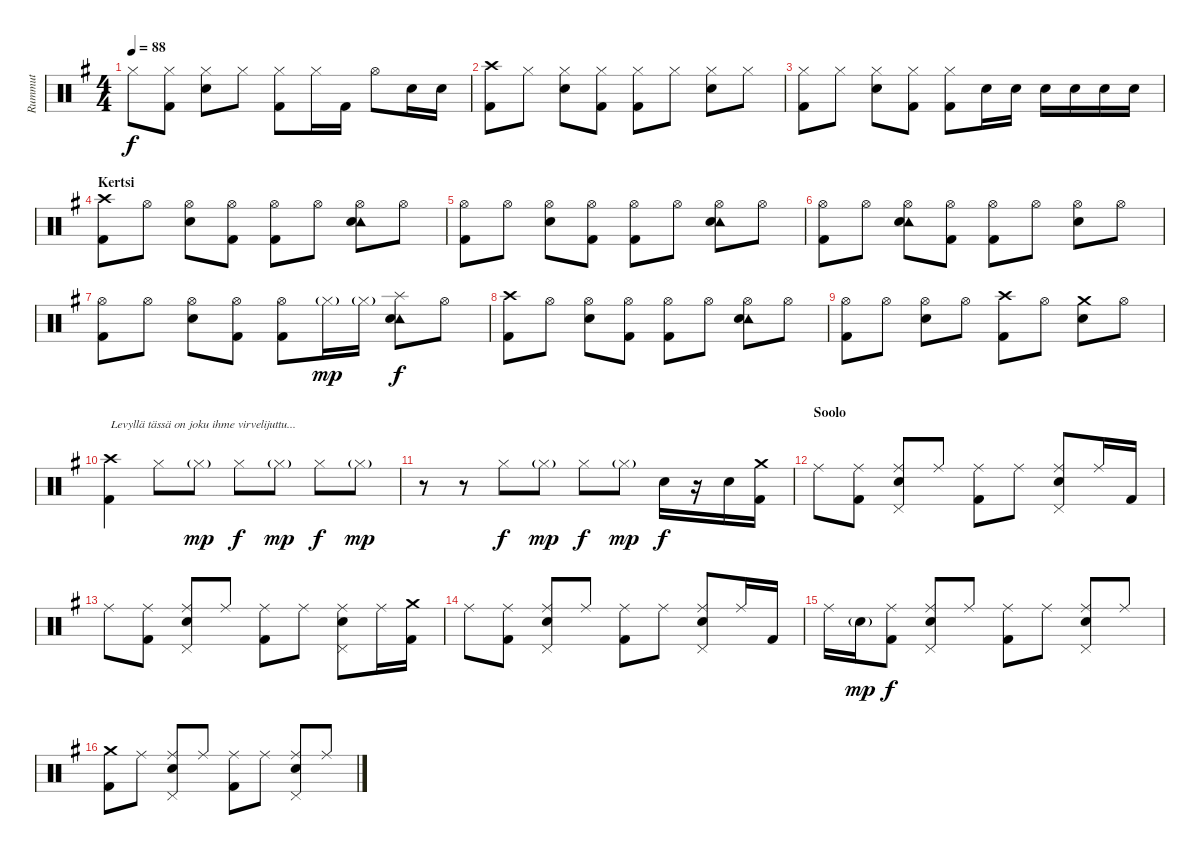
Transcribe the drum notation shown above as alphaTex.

\track ("Rummut" "Rummut") {instrument percussion}
\staff {score}
\articulation defaults
\ts (4 4)
\tempo 88
\clef neutral
\ks eminor "Hi-Hat (closed)".8{dy f}
("Hi-Hat (closed)" "Kick (hit) 2").8 ("Hi-Hat (closed)" "Snare (hit) 2").8 "Hi-Hat (closed)".8 ("Hi-Hat (closed)" "Kick (hit) 2").8 "Hi-Hat (closed)".16 "Kick (hit) 2".16 "Hi-Hat (open)".8 "Snare (hit) 2".16 "Snare (hit) 2".16 |
("Crash high (hit)" "Kick (hit) 2").8 "Hi-Hat (closed)".8 ("Hi-Hat (closed)" "Snare (hit) 2").8 ("Hi-Hat (closed)" "Kick (hit) 2").8 ("Hi-Hat (closed)" "Kick (hit) 2").8 "Hi-Hat (closed)".8 ("Hi-Hat (closed)" "Snare (hit) 2").8 "Hi-Hat (closed)".8 |
("Hi-Hat (closed)" "Kick (hit) 2").8 "Hi-Hat (closed)".8 ("Hi-Hat (closed)" "Snare (hit) 2").8 ("Hi-Hat (closed)" "Kick (hit) 2").8 ("Hi-Hat (closed)" "Kick (hit) 2").8 "Snare (hit) 2".16 "Snare (hit) 2".16 "Snare (hit) 2".16 "Snare (hit) 2".16 "Snare (hit) 2".16 "Snare (hit) 2".16 |
\section ("" "Kertsi")
("Crash high (hit)" "Kick (hit) 2").8 "Hi-Hat (open)".8 ("Hi-Hat (open)" "Snare (hit) 2").8 ("Hi-Hat (open)" "Kick (hit) 2").8 ("Hi-Hat (open)" "Kick (hit) 2").8 "Hi-Hat (open)".8 ("Hi-Hat (open)" "Tambourine (hit)" "Snare (hit) 2").8 "Hi-Hat (open)".8 |
("Hi-Hat (open)" "Kick (hit) 2").8 "Hi-Hat (open)".8 ("Hi-Hat (open)" "Snare (hit) 2").8 ("Hi-Hat (open)" "Kick (hit) 2").8 ("Hi-Hat (open)" "Kick (hit) 2").8 "Hi-Hat (open)".8 ("Hi-Hat (open)" "Tambourine (hit)" "Snare (hit) 2").8 "Hi-Hat (open)".8 |
("Hi-Hat (open)" "Kick (hit) 2").8 "Hi-Hat (open)".8 ("Hi-Hat (open)" "Tambourine (hit)" "Snare (hit) 2").8 ("Hi-Hat (open)" "Kick (hit) 2").8 ("Hi-Hat (open)" "Kick (hit) 2").8 "Hi-Hat (open)".8 ("Hi-Hat (open)" "Snare (hit) 2").8 "Hi-Hat (open)".8 |
("Hi-Hat (open)" "Kick (hit) 2").8 "Hi-Hat (open)".8 ("Hi-Hat (open)" "Snare (hit) 2").8 ("Hi-Hat (open)" "Kick (hit) 2").8 ("Hi-Hat (open)" "Kick (hit) 2").8 "Hi-Hat (closed)"{g}.16{dy mp} "Hi-Hat (closed)"{g}.16 ("Splash (hit)" "Tambourine (hit)" "Snare (hit) 2").8{dy f} "Hi-Hat (open)".8 |
("Crash high (hit)" "Kick (hit) 2").8 "Hi-Hat (open)".8 ("Hi-Hat (open)" "Snare (hit) 2").8 ("Hi-Hat (open)" "Kick (hit) 2").8 ("Hi-Hat (open)" "Kick (hit) 2").8 "Hi-Hat (open)".8 ("Hi-Hat (open)" "Tambourine (hit)" "Snare (hit) 2").8 "Hi-Hat (open)".8 |
("Hi-Hat (open)" "Kick (hit) 2").8 "Hi-Hat (open)".8 ("Hi-Hat (open)" "Snare (hit) 2").8 "Hi-Hat (open)".8 ("Crash high (hit)" "Kick (hit) 2").8 "Hi-Hat (open)".8 ("Crash medium (hit)" "Snare (hit) 2").8 "Hi-Hat (open)".8 |
("Crash high (hit)" "Kick (hit) 2").4{txt "Levyllä tässä on joku ihme virvelijuttu..."} "Hi-Hat (closed)".8 "Hi-Hat (closed)"{g}.8{dy mp} "Hi-Hat (closed)".8{dy f} "Hi-Hat (closed)"{g}.8{dy mp} "Hi-Hat (closed)".8{dy f} "Hi-Hat (closed)"{g}.8{dy mp} |
r.8 r.8 "Hi-Hat (closed)".8{dy f} "Hi-Hat (closed)"{g}.8{dy mp} "Hi-Hat (closed)".8{dy f} "Hi-Hat (closed)"{g}.8{dy mp} "Snare (hit) 2".16{dy f} r.16 "Snare (hit) 2".16 ("Crash medium (hit)" "Kick (hit) 2").16 |
\section ("" "Soolo")
"Ride (middle)".8 ("Ride (middle)" "Kick (hit) 2").8 ("Ride (middle)" "Pedal Hi-Hat (hit)" "Snare (hit) 2").8 "Ride (middle)".8 ("Ride (middle)" "Kick (hit) 2").8 "Ride (middle)".8 ("Ride (middle)" "Pedal Hi-Hat (hit)" "Snare (hit) 2").8 "Ride (middle)".16 "Kick (hit) 2".16 |
"Ride (middle)".8 ("Ride (middle)" "Kick (hit) 2").8 ("Ride (middle)" "Pedal Hi-Hat (hit)" "Snare (hit) 2").8 "Ride (middle)".8 ("Ride (middle)" "Kick (hit) 2").8 "Ride (middle)".8 ("Ride (middle)" "Pedal Hi-Hat (hit)" "Snare (hit) 2").8 "Ride (middle)".16 ("Crash medium (hit)" "Kick (hit) 2").16 |
"Ride (middle)".8 ("Ride (middle)" "Kick (hit) 2").8 ("Ride (middle)" "Pedal Hi-Hat (hit)" "Snare (hit) 2").8 "Ride (middle)".8 ("Ride (middle)" "Kick (hit) 2").8 "Ride (middle)".8 ("Ride (middle)" "Pedal Hi-Hat (hit)" "Snare (hit) 2").8 "Ride (middle)".16 "Kick (hit) 2".16 |
"Ride (middle)".16 "Snare (hit) 2"{g}.16{dy mp} ("Ride (middle)" "Kick (hit) 2").8{dy f} ("Ride (middle)" "Pedal Hi-Hat (hit)" "Snare (hit) 2").8 "Ride (middle)".8 ("Ride (middle)" "Kick (hit) 2").8 "Ride (middle)".8 ("Ride (middle)" "Pedal Hi-Hat (hit)" "Snare (hit) 2").8 "Ride (middle)".8 |
("Crash medium (hit)" "Kick (hit) 2").8 "Ride (middle)".8 ("Ride (middle)" "Pedal Hi-Hat (hit)" "Snare (hit) 2").8 "Ride (middle)".8 ("Ride (middle)" "Kick (hit) 2").8 "Ride (middle)".8 ("Ride (middle)" "Pedal Hi-Hat (hit)" "Snare (hit) 2").8 "Ride (middle)".8
